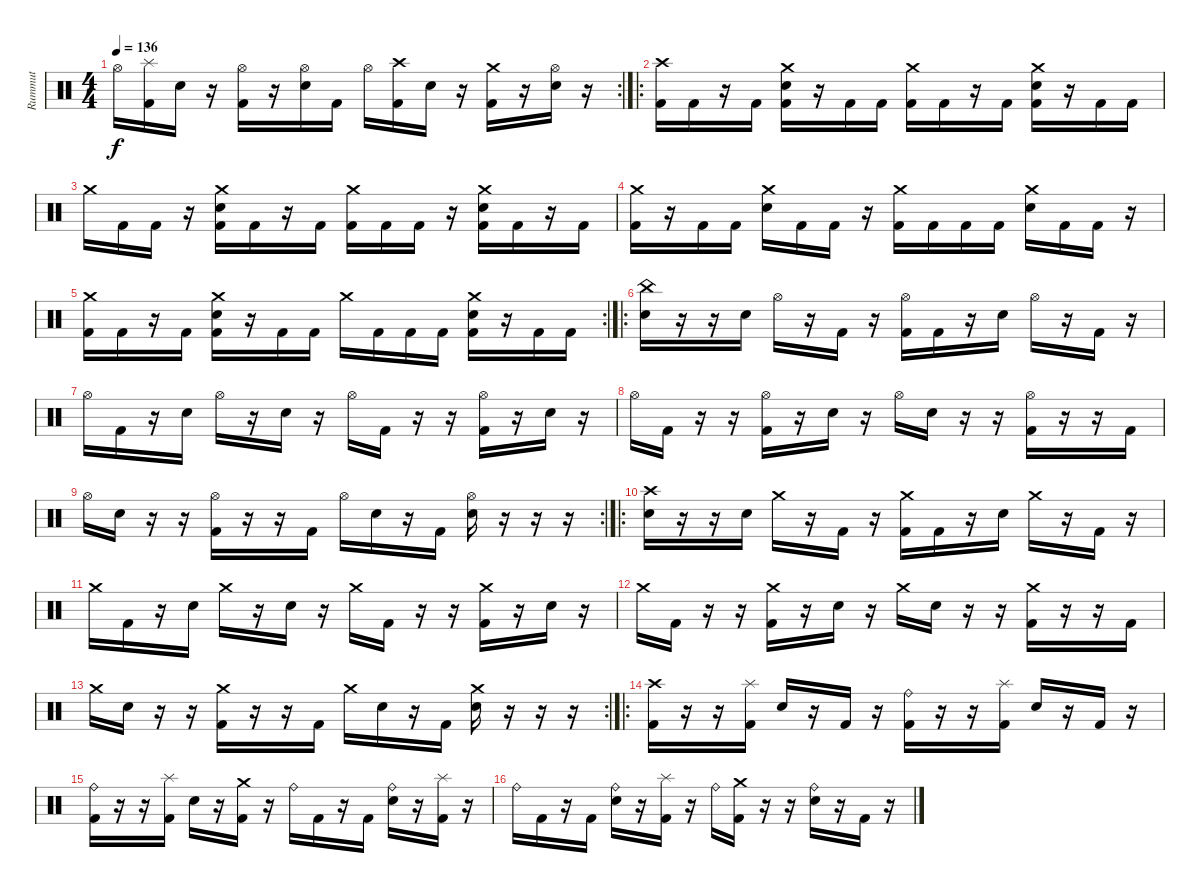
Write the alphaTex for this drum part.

\track ("Rummut" "Rummut") {instrument percussion}
\staff {score}
\articulation defaults
\rc 2
\ts (4 4)
\tempo 136
\clef neutral
\ks c "Hi-Hat (open)".16{dy f}
("Splash (hit)" "Kick (hit) 2").16 "Electric Snare (hit)".16 r.16 ("Hi-Hat (open)" "Kick (hit) 2").16 r.16 ("Hi-Hat (open)" "Electric Snare (hit)").16 "Kick (hit) 2".16 "Hi-Hat (open)".16 ("Crash high (hit)" "Kick (hit) 2").16 "Electric Snare (hit)".16 r.16 ("Crash medium (hit)" "Kick (hit) 2").16 r.16 ("Hi-Hat (open)" "Electric Snare (hit)").16 r.16 |
\ro
("Crash high (hit)" "Kick (hit) 2").16 "Kick (hit) 2".16 r.16 "Kick (hit) 2".16 ("Crash medium (hit)" "Electric Snare (hit)" "Kick (hit) 2").16 r.16 "Kick (hit) 2".16 "Kick (hit) 2".16 ("Crash medium (hit)" "Kick (hit) 2").16 "Kick (hit) 2".16 r.16 "Kick (hit) 2".16 ("Crash medium (hit)" "Electric Snare (hit)" "Kick (hit) 2").16 r.16 "Kick (hit) 2".16 "Kick (hit) 2".16 |
"Crash medium (hit)".16 "Kick (hit) 2".16 "Kick (hit) 2".16 r.16 ("Crash medium (hit)" "Electric Snare (hit)" "Kick (hit) 2").16 "Kick (hit) 2".16 r.16 "Kick (hit) 2".16 ("Crash medium (hit)" "Kick (hit) 2").16 "Kick (hit) 2".16 "Kick (hit) 2".16 r.16 ("Crash medium (hit)" "Electric Snare (hit)" "Kick (hit) 2").16 "Kick (hit) 2".16 r.16 "Kick (hit) 2".16 |
("Crash medium (hit)" "Kick (hit) 2").16 r.16 "Kick (hit) 2".16 "Kick (hit) 2".16 ("Crash medium (hit)" "Electric Snare (hit)").16 "Kick (hit) 2".16 "Kick (hit) 2".16 r.16 ("Crash medium (hit)" "Kick (hit) 2").16 "Kick (hit) 2".16 "Kick (hit) 2".16 "Kick (hit) 2".16 ("Crash medium (hit)" "Electric Snare (hit)").16 "Kick (hit) 2".16 "Kick (hit) 2".16 r.16 |
\rc 2
("Crash medium (hit)" "Kick (hit) 2").16 "Kick (hit) 2".16 r.16 "Kick (hit) 2".16 ("Crash medium (hit)" "Electric Snare (hit)" "Kick (hit) 2").16 r.16 "Kick (hit) 2".16 "Kick (hit) 2".16 "Crash medium (hit)".16 "Kick (hit) 2".16 "Kick (hit) 2".16 "Kick (hit) 2".16 ("Crash medium (hit)" "Electric Snare (hit)" "Kick (hit) 2").16 r.16 "Kick (hit) 2".16 "Kick (hit) 2".16 |
\ro
("China (hit)" "Electric Snare (hit)").16 r.16 r.16 "Electric Snare (hit)".16 "Hi-Hat (open)".16 r.16 "Kick (hit) 2".16 r.16 ("Hi-Hat (open)" "Kick (hit) 2").16 "Kick (hit) 2".16 r.16 "Electric Snare (hit)".16 "Hi-Hat (open)".16 r.16 "Kick (hit) 2".16 r.16 |
"Hi-Hat (open)".16 "Kick (hit) 2".16 r.16 "Electric Snare (hit)".16 "Hi-Hat (open)".16 r.16 "Electric Snare (hit)".16 r.16 "Hi-Hat (open)".16 "Kick (hit) 2".16 r.16 r.16 ("Hi-Hat (open)" "Kick (hit) 2").16 r.16 "Electric Snare (hit)".16 r.16 |
"Hi-Hat (open)".16 "Kick (hit) 2".16 r.16 r.16 ("Hi-Hat (open)" "Kick (hit) 2").16 r.16 "Electric Snare (hit)".16 r.16 "Hi-Hat (open)".16 "Electric Snare (hit)".16 r.16 r.16 ("Hi-Hat (open)" "Kick (hit) 2").16 r.16 r.16 "Kick (hit) 2".16 |
\rc 2 "Hi-Hat (open)".16 "Electric Snare (hit)".16
r.16 r.16 ("Hi-Hat (open)" "Kick (hit) 2").16 r.16 r.16 "Kick (hit) 2".16 "Hi-Hat (open)".16 "Electric Snare (hit)".16 r.16 "Kick (hit) 2".16 ("Hi-Hat (open)" "Electric Snare (hit)").16 r.16 r.16 r.16 |
\ro
("Crash high (hit)" "Electric Snare (hit)").16 r.16 r.16 "Electric Snare (hit)".16 "Crash medium (hit)".16 r.16 "Kick (hit) 2".16 r.16 ("Crash medium (hit)" "Kick (hit) 2").16 "Kick (hit) 2".16 r.16 "Electric Snare (hit)".16 "Crash medium (hit)".16 r.16 "Kick (hit) 2".16 r.16 |
"Crash medium (hit)".16 "Kick (hit) 2".16 r.16 "Electric Snare (hit)".16 "Crash medium (hit)".16 r.16 "Electric Snare (hit)".16 r.16 "Crash medium (hit)".16 "Kick (hit) 2".16 r.16 r.16 ("Crash medium (hit)" "Kick (hit) 2").16 r.16 "Electric Snare (hit)".16 r.16 |
"Crash medium (hit)".16 "Kick (hit) 2".16 r.16 r.16 ("Crash medium (hit)" "Kick (hit) 2").16 r.16 "Electric Snare (hit)".16 r.16 "Crash medium (hit)".16 "Electric Snare (hit)".16 r.16 r.16 ("Crash medium (hit)" "Kick (hit) 2").16 r.16 r.16 "Kick (hit) 2".16 |
\rc 2 "Crash medium (hit)".16 "Electric Snare (hit)".16
r.16 r.16 ("Crash medium (hit)" "Kick (hit) 2").16 r.16 r.16 "Kick (hit) 2".16 "Crash medium (hit)".16 "Electric Snare (hit)".16 r.16 "Kick (hit) 2".16 ("Crash medium (hit)" "Electric Snare (hit)").16 r.16 r.16 r.16 |
\ro
("Crash high (hit)" "Kick (hit) 2").16 r.16 r.16 ("Splash (hit)" "Kick (hit) 2").16 "Electric Snare (hit)".16 r.16 "Kick (hit) 2".16 r.16 ("Ride (bell)" "Kick (hit) 2").16 r.16 r.16 ("Splash (hit)" "Kick (hit) 2").16 "Electric Snare (hit)".16 r.16 "Kick (hit) 2".16 r.16 |
("Ride (bell)" "Kick (hit) 2").16 r.16 r.16 ("Splash (hit)" "Kick (hit) 2").16 "Electric Snare (hit)".16 r.16 ("Crash medium (hit)" "Kick (hit) 2").16 r.16 "Ride (bell)".16 "Kick (hit) 2".16 r.16 "Kick (hit) 2".16 ("Ride (bell)" "Electric Snare (hit)").16 r.16 ("Splash (hit)" "Kick (hit) 2").16 r.16 |
"Ride (bell)".16 "Kick (hit) 2".16 r.16 "Kick (hit) 2".16 ("Ride (bell)" "Electric Snare (hit)").16 r.16 ("Splash (hit)" "Kick (hit) 2").16 r.16 "Ride (bell)".16 ("Crash medium (hit)" "Kick (hit) 2").16 r.16 r.16 ("Ride (bell)" "Electric Snare (hit)").16 r.16 "Kick (hit) 2".16 r.16
